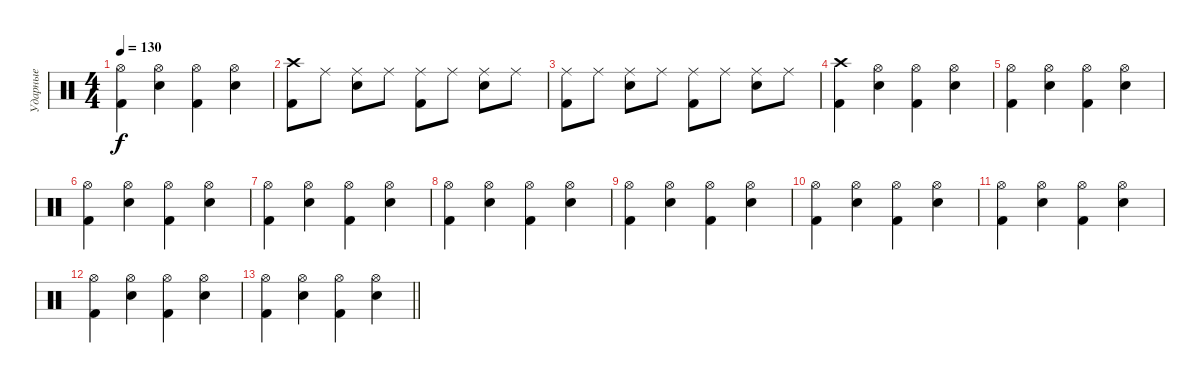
\track ("Ударные" "Ударные") {instrument percussion}
\staff {score}
\articulation defaults
\ts (4 4)
\tempo 130
\clef neutral
\ks c
("Hi-Hat (open)" "Kick (hit) 2").4{dy f} ("Hi-Hat (open)" "Snare (hit) 2").4 ("Hi-Hat (open)" "Kick (hit) 2").4 ("Hi-Hat (open)" "Snare (hit) 2").4 |
("Crash high (hit)" "Kick (hit) 2").8 "Ride (middle)".8 ("Ride (middle)" "Snare (hit) 2").8 "Ride (middle)".8 ("Ride (middle)" "Kick (hit) 2").8 "Ride (middle)".8 ("Ride (middle)" "Snare (hit) 2").8 "Ride (middle)".8 |
("Ride (middle)" "Kick (hit) 2").8 "Ride (middle)".8 ("Ride (middle)" "Snare (hit) 2").8 "Ride (middle)".8 ("Ride (middle)" "Kick (hit) 2").8 "Ride (middle)".8 ("Ride (middle)" "Snare (hit) 2").8 "Ride (middle)".8 |
("Crash high (hit)" "Kick (hit) 2").4 ("Hi-Hat (open)" "Snare (hit) 2").4 ("Hi-Hat (open)" "Kick (hit) 2").4 ("Hi-Hat (open)" "Snare (hit) 2").4 |
("Hi-Hat (open)" "Kick (hit) 2").4 ("Hi-Hat (open)" "Snare (hit) 2").4 ("Hi-Hat (open)" "Kick (hit) 2").4 ("Hi-Hat (open)" "Snare (hit) 2").4 |
("Hi-Hat (open)" "Kick (hit) 2").4 ("Hi-Hat (open)" "Snare (hit) 2").4 ("Hi-Hat (open)" "Kick (hit) 2").4 ("Hi-Hat (open)" "Snare (hit) 2").4 |
("Hi-Hat (open)" "Kick (hit) 2").4 ("Hi-Hat (open)" "Snare (hit) 2").4 ("Hi-Hat (open)" "Kick (hit) 2").4 ("Hi-Hat (open)" "Snare (hit) 2").4 |
("Hi-Hat (open)" "Kick (hit) 2").4 ("Hi-Hat (open)" "Snare (hit) 2").4 ("Hi-Hat (open)" "Kick (hit) 2").4 ("Hi-Hat (open)" "Snare (hit) 2").4 |
("Hi-Hat (open)" "Kick (hit) 2").4 ("Hi-Hat (open)" "Snare (hit) 2").4 ("Hi-Hat (open)" "Kick (hit) 2").4 ("Hi-Hat (open)" "Snare (hit) 2").4 |
("Hi-Hat (open)" "Kick (hit) 2").4 ("Hi-Hat (open)" "Snare (hit) 2").4 ("Hi-Hat (open)" "Kick (hit) 2").4 ("Hi-Hat (open)" "Snare (hit) 2").4 |
("Hi-Hat (open)" "Kick (hit) 2").4 ("Hi-Hat (open)" "Snare (hit) 2").4 ("Hi-Hat (open)" "Kick (hit) 2").4 ("Hi-Hat (open)" "Snare (hit) 2").4 |
("Hi-Hat (open)" "Kick (hit) 2").4 ("Hi-Hat (open)" "Snare (hit) 2").4 ("Hi-Hat (open)" "Kick (hit) 2").4 ("Hi-Hat (open)" "Snare (hit) 2").4 |
\barLineRight lightlight
("Hi-Hat (open)" "Kick (hit) 2").4 ("Hi-Hat (open)" "Snare (hit) 2").4 ("Hi-Hat (open)" "Kick (hit) 2").4 ("Hi-Hat (open)" "Snare (hit) 2").4
